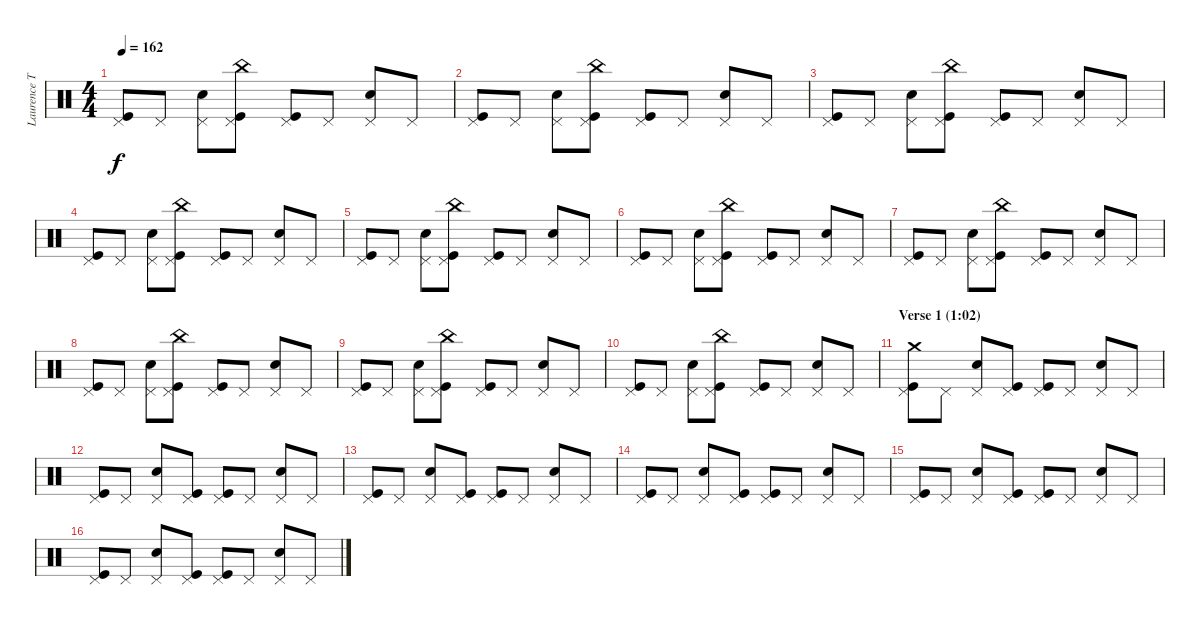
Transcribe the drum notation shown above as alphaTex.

\track ("Laurence Tolhurst (drums)" "Laurence T") {instrument percussion}
\staff {score}
\articulation defaults
\ts (4 4)
\tempo 162
\clef neutral
\ks c
("Pedal Hi-Hat (hit)" "Kick (hit)").8{dy f} "Pedal Hi-Hat (hit)".8 ("Pedal Hi-Hat (hit)" "Snare (hit) 2").8 ("China (hit)" "Pedal Hi-Hat (hit)" "Kick (hit)").8 ("Pedal Hi-Hat (hit)" "Kick (hit)").8 "Pedal Hi-Hat (hit)".8 ("Pedal Hi-Hat (hit)" "Snare (hit) 2").8 "Pedal Hi-Hat (hit)".8 |
("Pedal Hi-Hat (hit)" "Kick (hit)").8 "Pedal Hi-Hat (hit)".8 ("Pedal Hi-Hat (hit)" "Snare (hit) 2").8 ("China (hit)" "Pedal Hi-Hat (hit)" "Kick (hit)").8 ("Pedal Hi-Hat (hit)" "Kick (hit)").8 "Pedal Hi-Hat (hit)".8 ("Pedal Hi-Hat (hit)" "Snare (hit) 2").8 "Pedal Hi-Hat (hit)".8 |
("Pedal Hi-Hat (hit)" "Kick (hit)").8 "Pedal Hi-Hat (hit)".8 ("Pedal Hi-Hat (hit)" "Snare (hit) 2").8 ("China (hit)" "Pedal Hi-Hat (hit)" "Kick (hit)").8 ("Pedal Hi-Hat (hit)" "Kick (hit)").8 "Pedal Hi-Hat (hit)".8 ("Pedal Hi-Hat (hit)" "Snare (hit) 2").8 "Pedal Hi-Hat (hit)".8 |
("Pedal Hi-Hat (hit)" "Kick (hit)").8 "Pedal Hi-Hat (hit)".8 ("Pedal Hi-Hat (hit)" "Snare (hit) 2").8 ("China (hit)" "Pedal Hi-Hat (hit)" "Kick (hit)").8 ("Pedal Hi-Hat (hit)" "Kick (hit)").8 "Pedal Hi-Hat (hit)".8 ("Pedal Hi-Hat (hit)" "Snare (hit) 2").8 "Pedal Hi-Hat (hit)".8 |
("Pedal Hi-Hat (hit)" "Kick (hit)").8 "Pedal Hi-Hat (hit)".8 ("Pedal Hi-Hat (hit)" "Snare (hit) 2").8 ("China (hit)" "Pedal Hi-Hat (hit)" "Kick (hit)").8 ("Pedal Hi-Hat (hit)" "Kick (hit)").8 "Pedal Hi-Hat (hit)".8 ("Pedal Hi-Hat (hit)" "Snare (hit) 2").8 "Pedal Hi-Hat (hit)".8 |
("Pedal Hi-Hat (hit)" "Kick (hit)").8 "Pedal Hi-Hat (hit)".8 ("Pedal Hi-Hat (hit)" "Snare (hit) 2").8 ("China (hit)" "Pedal Hi-Hat (hit)" "Kick (hit)").8 ("Pedal Hi-Hat (hit)" "Kick (hit)").8 "Pedal Hi-Hat (hit)".8 ("Pedal Hi-Hat (hit)" "Snare (hit) 2").8 "Pedal Hi-Hat (hit)".8 |
("Pedal Hi-Hat (hit)" "Kick (hit)").8 "Pedal Hi-Hat (hit)".8 ("Pedal Hi-Hat (hit)" "Snare (hit) 2").8 ("China (hit)" "Pedal Hi-Hat (hit)" "Kick (hit)").8 ("Pedal Hi-Hat (hit)" "Kick (hit)").8 "Pedal Hi-Hat (hit)".8 ("Pedal Hi-Hat (hit)" "Snare (hit) 2").8 "Pedal Hi-Hat (hit)".8 |
("Pedal Hi-Hat (hit)" "Kick (hit)").8 "Pedal Hi-Hat (hit)".8 ("Pedal Hi-Hat (hit)" "Snare (hit) 2").8 ("China (hit)" "Pedal Hi-Hat (hit)" "Kick (hit)").8 ("Pedal Hi-Hat (hit)" "Kick (hit)").8 "Pedal Hi-Hat (hit)".8 ("Pedal Hi-Hat (hit)" "Snare (hit) 2").8 "Pedal Hi-Hat (hit)".8 |
("Pedal Hi-Hat (hit)" "Kick (hit)").8 "Pedal Hi-Hat (hit)".8 ("Pedal Hi-Hat (hit)" "Snare (hit) 2").8 ("China (hit)" "Pedal Hi-Hat (hit)" "Kick (hit)").8 ("Pedal Hi-Hat (hit)" "Kick (hit)").8 "Pedal Hi-Hat (hit)".8 ("Pedal Hi-Hat (hit)" "Snare (hit) 2").8 "Pedal Hi-Hat (hit)".8 |
("Pedal Hi-Hat (hit)" "Kick (hit)").8 "Pedal Hi-Hat (hit)".8 ("Pedal Hi-Hat (hit)" "Snare (hit) 2").8 ("China (hit)" "Pedal Hi-Hat (hit)" "Kick (hit)").8 ("Pedal Hi-Hat (hit)" "Kick (hit)").8 "Pedal Hi-Hat (hit)".8 ("Pedal Hi-Hat (hit)" "Snare (hit) 2").8 "Pedal Hi-Hat (hit)".8 |
\section ("" "Verse 1 (1:02)")
("Crash medium (hit)" "Pedal Hi-Hat (hit)" "Kick (hit)").8 "Pedal Hi-Hat (hit)".8 ("Pedal Hi-Hat (hit)" "Snare (hit) 2").8 ("Pedal Hi-Hat (hit)" "Kick (hit)").8 ("Pedal Hi-Hat (hit)" "Kick (hit)").8 "Pedal Hi-Hat (hit)".8 ("Pedal Hi-Hat (hit)" "Snare (hit) 2").8 "Pedal Hi-Hat (hit)".8 |
("Pedal Hi-Hat (hit)" "Kick (hit)").8 "Pedal Hi-Hat (hit)".8 ("Pedal Hi-Hat (hit)" "Snare (hit) 2").8 ("Pedal Hi-Hat (hit)" "Kick (hit)").8 ("Pedal Hi-Hat (hit)" "Kick (hit)").8 "Pedal Hi-Hat (hit)".8 ("Pedal Hi-Hat (hit)" "Snare (hit) 2").8 "Pedal Hi-Hat (hit)".8 |
("Pedal Hi-Hat (hit)" "Kick (hit)").8 "Pedal Hi-Hat (hit)".8 ("Pedal Hi-Hat (hit)" "Snare (hit) 2").8 ("Pedal Hi-Hat (hit)" "Kick (hit)").8 ("Pedal Hi-Hat (hit)" "Kick (hit)").8 "Pedal Hi-Hat (hit)".8 ("Pedal Hi-Hat (hit)" "Snare (hit) 2").8 "Pedal Hi-Hat (hit)".8 |
("Pedal Hi-Hat (hit)" "Kick (hit)").8 "Pedal Hi-Hat (hit)".8 ("Pedal Hi-Hat (hit)" "Snare (hit) 2").8 ("Pedal Hi-Hat (hit)" "Kick (hit)").8 ("Pedal Hi-Hat (hit)" "Kick (hit)").8 "Pedal Hi-Hat (hit)".8 ("Pedal Hi-Hat (hit)" "Snare (hit) 2").8 "Pedal Hi-Hat (hit)".8 |
("Pedal Hi-Hat (hit)" "Kick (hit)").8 "Pedal Hi-Hat (hit)".8 ("Pedal Hi-Hat (hit)" "Snare (hit) 2").8 ("Pedal Hi-Hat (hit)" "Kick (hit)").8 ("Pedal Hi-Hat (hit)" "Kick (hit)").8 "Pedal Hi-Hat (hit)".8 ("Pedal Hi-Hat (hit)" "Snare (hit) 2").8 "Pedal Hi-Hat (hit)".8 |
("Pedal Hi-Hat (hit)" "Kick (hit)").8 "Pedal Hi-Hat (hit)".8 ("Pedal Hi-Hat (hit)" "Snare (hit) 2").8 ("Pedal Hi-Hat (hit)" "Kick (hit)").8 ("Pedal Hi-Hat (hit)" "Kick (hit)").8 "Pedal Hi-Hat (hit)".8 ("Pedal Hi-Hat (hit)" "Snare (hit) 2").8 "Pedal Hi-Hat (hit)".8
